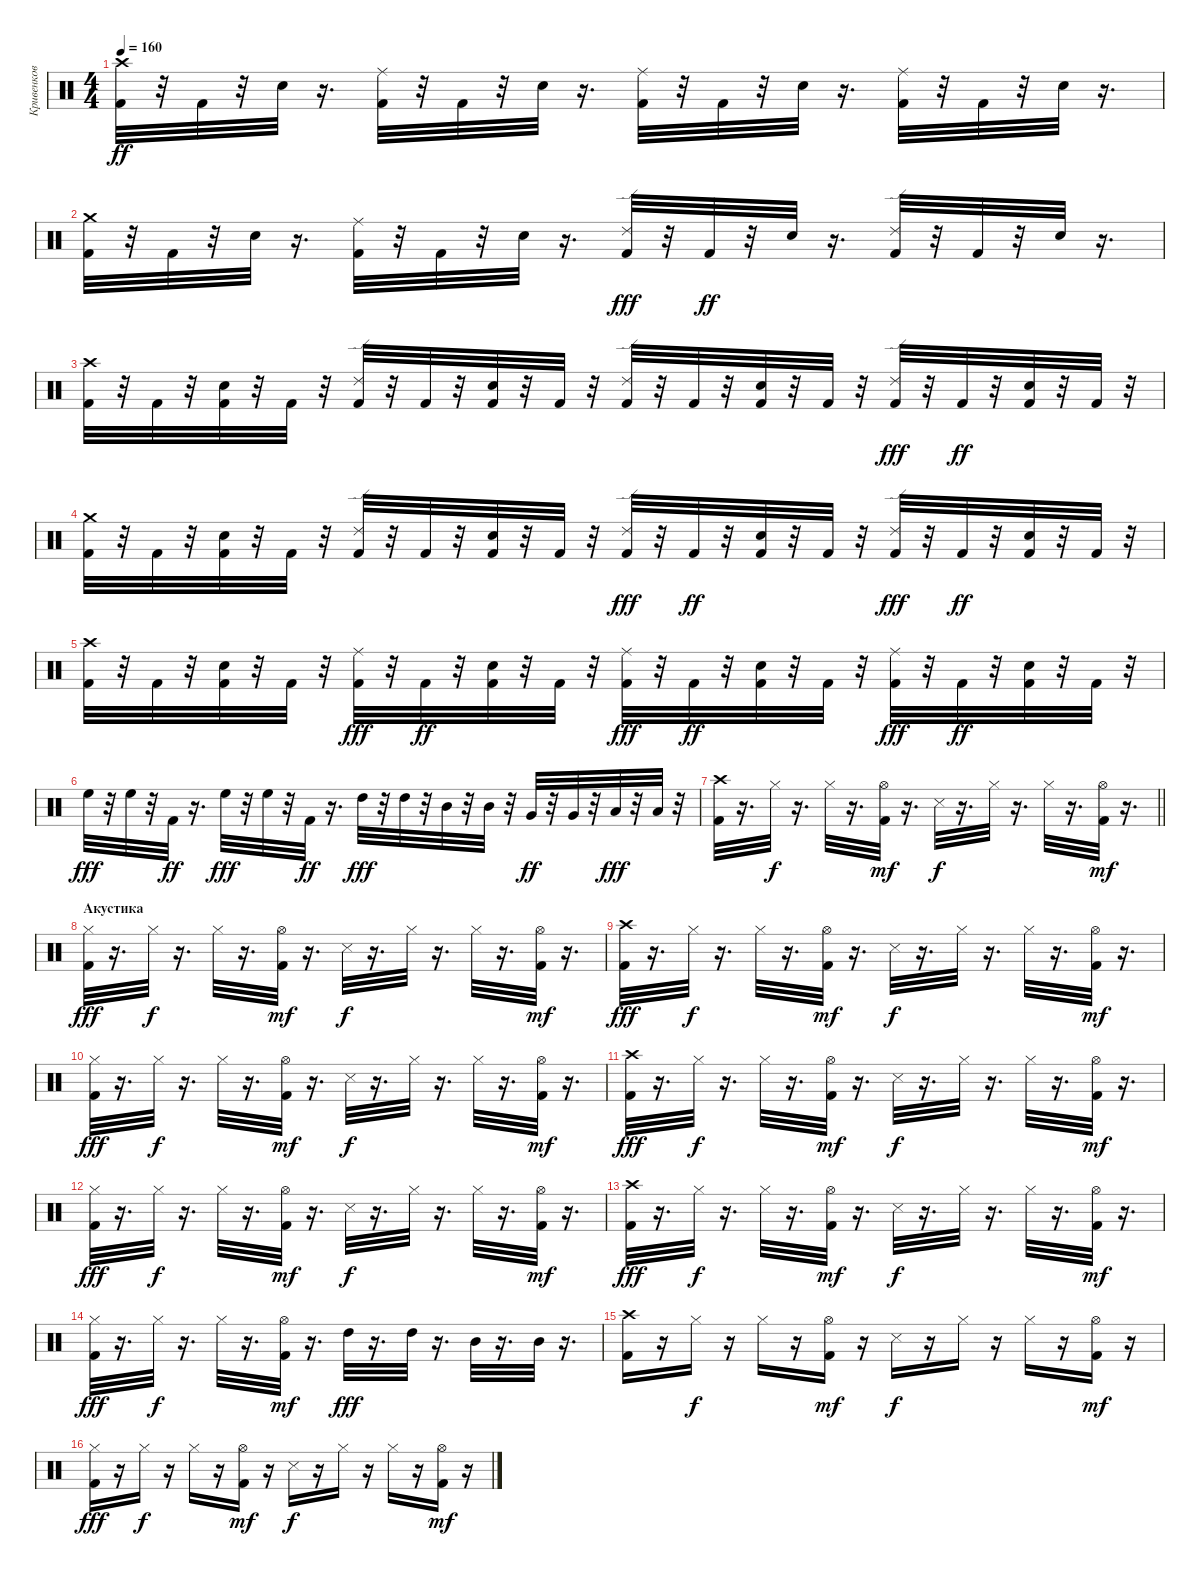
\track ("Кривенков" "Кривенков") {instrument percussion}
\staff {score}
\articulation defaults
\ts (4 4)
\tempo 160
\clef neutral
\ks c
("Crash high (hit)" "Kick (hit) 2").32{dy ff} r.32 "Kick (hit) 2".32 r.32 "Electric Snare (hit)".32 r.16{d} ("Ride (middle)" "Kick (hit) 2").32 r.32 "Kick (hit) 2".32 r.32 "Electric Snare (hit)".32 r.16{d} ("Ride (middle)" "Kick (hit) 2").32 r.32 "Kick (hit) 2".32 r.32 "Electric Snare (hit)".32 r.16{d} ("Ride (middle)" "Kick (hit) 2").32 r.32 "Kick (hit) 2".32 r.32 "Electric Snare (hit)".32 r.16{d} |
("Crash medium (hit)" "Kick (hit) 2").32 r.32 "Kick (hit) 2".32 r.32 "Electric Snare (hit)".32 r.16{d} ("Ride (middle)" "Kick (hit) 2").32 r.32 "Kick (hit) 2".32 r.32 "Electric Snare (hit)".32 r.16{d} ("Kick (hit) 2" "Ride (edge) 2").32{dy fff} r.32 "Kick (hit) 2".32{dy ff} r.32 "Electric Snare (hit)".32 r.16{d} ("Ride (edge) 2" "Kick (hit) 2").32 r.32 "Kick (hit) 2".32 r.32 "Electric Snare (hit)".32 r.16{d} |
("Crash high (hit)" "Kick (hit) 2").32 r.32 "Kick (hit) 2".32 r.32 ("Electric Snare (hit)" "Kick (hit) 2").32 r.32 "Kick (hit) 2".32 r.32 ("Ride (edge) 2" "Kick (hit) 2").32 r.32 "Kick (hit) 2".32 r.32 ("Kick (hit) 2" "Electric Snare (hit)").32 r.32 "Kick (hit) 2".32 r.32 ("Ride (edge) 2" "Kick (hit) 2").32 r.32 "Kick (hit) 2".32 r.32 ("Electric Snare (hit)" "Kick (hit) 2").32 r.32 "Kick (hit) 2".32 r.32 ("Kick (hit) 2" "Ride (edge) 2").32{dy fff} r.32 "Kick (hit) 2".32{dy ff} r.32 ("Electric Snare (hit)" "Kick (hit) 2").32 r.32 "Kick (hit) 2".32 r.32 |
("Crash medium (hit)" "Kick (hit) 2").32 r.32 "Kick (hit) 2".32 r.32 ("Electric Snare (hit)" "Kick (hit) 2").32 r.32 "Kick (hit) 2".32 r.32 ("Ride (edge) 2" "Kick (hit) 2").32 r.32 "Kick (hit) 2".32 r.32 ("Kick (hit) 2" "Electric Snare (hit)").32 r.32 "Kick (hit) 2".32 r.32 ("Kick (hit) 2" "Ride (edge) 2").32{dy fff} r.32 "Kick (hit) 2".32{dy ff} r.32 ("Kick (hit) 2" "Electric Snare (hit)").32 r.32 "Kick (hit) 2".32 r.32 ("Kick (hit) 2" "Ride (edge) 2").32{dy fff} r.32 "Kick (hit) 2".32{dy ff} r.32 ("Kick (hit) 2" "Electric Snare (hit)").32 r.32 "Kick (hit) 2".32 r.32 |
("Crash high (hit)" "Kick (hit) 2").32 r.32 "Kick (hit) 2".32 r.32 ("Kick (hit) 2" "Electric Snare (hit)").32 r.32 "Kick (hit) 2".32 r.32 ("Kick (hit) 2" "Ride (middle)").32{dy fff} r.32 "Kick (hit) 2".32{dy ff} r.32 ("Kick (hit) 2" "Electric Snare (hit)").32 r.32 "Kick (hit) 2".32 r.32 ("Kick (hit) 2" "Ride (middle)").32{dy fff} r.32 "Kick (hit) 2".32{dy ff} r.32 ("Electric Snare (hit)" "Kick (hit) 2").32 r.32 "Kick (hit) 2".32 r.32 ("Kick (hit) 2" "Ride (middle)").32{dy fff} r.32 "Kick (hit) 2".32{dy ff} r.32 ("Kick (hit) 2" "Electric Snare (hit)").32 r.32 "Kick (hit) 2".32 r.32 |
"High Floor Tom (hit)".32{dy fff} r.32 "High Floor Tom (hit)".32 r.32 "Kick (hit) 2".32{dy ff} r.16{d} "High Floor Tom (hit)".32{dy fff} r.32 "High Floor Tom (hit)".32 r.32 "Kick (hit) 2".32{dy ff} r.16{d} "High Tom (hit)".32{dy fff} r.32 "High Tom (hit)".32 r.32 "Mid Tom (hit)".32 r.32 "Mid Tom (hit)".32 r.32 "Very Low Tom (hit)".32{dy ff} r.32 "Very Low Tom (hit)".32 r.32 "Low Tom (hit)".32{dy fff} r.32 "Low Tom (hit)".32 r.32 |
\barLineRight lightlight
("Crash high (hit)" "Kick (hit) 2").32 r.16{d} "Hi-Hat (closed)".32{dy f} r.16{d} "Hi-Hat (closed)".32 r.16{d} ("Kick (hit) 2" "Hi-Hat (open)").32{dy mf} r.16{d} "Snare (side stick) 3".32{dy f} r.16{d} "Hi-Hat (closed)".32 r.16{d} "Hi-Hat (closed)".32 r.16{d} ("Hi-Hat (open)" "Kick (hit) 2").32{dy mf} r.16{d} |
\section ("" "Акустика")
("Kick (hit) 2" "Hi-Hat (closed)").32{dy fff} r.16{d} "Hi-Hat (closed)".32{dy f} r.16{d} "Hi-Hat (closed)".32 r.16{d} ("Hi-Hat (open)" "Kick (hit) 2").32{dy mf} r.16{d} "Snare (side stick) 3".32{dy f} r.16{d} "Hi-Hat (closed)".32 r.16{d} "Hi-Hat (closed)".32 r.16{d} ("Kick (hit) 2" "Hi-Hat (open)").32{dy mf} r.16{d} |
("Kick (hit) 2" "Crash high (hit)").32{dy fff} r.16{d} "Hi-Hat (closed)".32{dy f} r.16{d} "Hi-Hat (closed)".32 r.16{d} ("Kick (hit) 2" "Hi-Hat (open)").32{dy mf} r.16{d} "Snare (side stick) 3".32{dy f} r.16{d} "Hi-Hat (closed)".32 r.16{d} "Hi-Hat (closed)".32 r.16{d} ("Kick (hit) 2" "Hi-Hat (open)").32{dy mf} r.16{d} |
("Kick (hit) 2" "Hi-Hat (closed)").32{dy fff} r.16{d} "Hi-Hat (closed)".32{dy f} r.16{d} "Hi-Hat (closed)".32 r.16{d} ("Hi-Hat (open)" "Kick (hit) 2").32{dy mf} r.16{d} "Snare (side stick) 3".32{dy f} r.16{d} "Hi-Hat (closed)".32 r.16{d} "Hi-Hat (closed)".32 r.16{d} ("Hi-Hat (open)" "Kick (hit) 2").32{dy mf} r.16{d} |
("Kick (hit) 2" "Crash high (hit)").32{dy fff} r.16{d} "Hi-Hat (closed)".32{dy f} r.16{d} "Hi-Hat (closed)".32 r.16{d} ("Hi-Hat (open)" "Kick (hit) 2").32{dy mf} r.16{d} "Snare (side stick) 3".32{dy f} r.16{d} "Hi-Hat (closed)".32 r.16{d} "Hi-Hat (closed)".32 r.16{d} ("Hi-Hat (open)" "Kick (hit) 2").32{dy mf} r.16{d} |
("Hi-Hat (closed)" "Kick (hit) 2").32{dy fff} r.16{d} "Hi-Hat (closed)".32{dy f} r.16{d} "Hi-Hat (closed)".32 r.16{d} ("Hi-Hat (open)" "Kick (hit) 2").32{dy mf} r.16{d} "Snare (side stick) 3".32{dy f} r.16{d} "Hi-Hat (closed)".32 r.16{d} "Hi-Hat (closed)".32 r.16{d} ("Kick (hit) 2" "Hi-Hat (open)").32{dy mf} r.16{d} |
("Kick (hit) 2" "Crash high (hit)").32{dy fff} r.16{d} "Hi-Hat (closed)".32{dy f} r.16{d} "Hi-Hat (closed)".32 r.16{d} ("Hi-Hat (open)" "Kick (hit) 2").32{dy mf} r.16{d} "Snare (side stick) 3".32{dy f} r.16{d} "Hi-Hat (closed)".32 r.16{d} "Hi-Hat (closed)".32 r.16{d} ("Kick (hit) 2" "Hi-Hat (open)").32{dy mf} r.16{d} |
("Hi-Hat (closed)" "Kick (hit) 2").32{dy fff} r.16{d} "Hi-Hat (closed)".32{dy f} r.16{d} "Hi-Hat (closed)".32 r.16{d} ("Kick (hit) 2" "Hi-Hat (open)").32{dy mf} r.16{d} "High Tom (hit)".32{dy fff} r.16{d} "High Tom (hit)".32 r.16{d} "Mid Tom (hit)".32 r.16{d} "Mid Tom (hit)".32 r.16{d} |
("Kick (hit) 2" "Crash high (hit)").16 r.16 "Hi-Hat (closed)".16{dy f} r.16 "Hi-Hat (closed)".16 r.16 ("Hi-Hat (open)" "Kick (hit) 2").16{dy mf} r.16 "Snare (side stick) 3".16{dy f} r.16 "Hi-Hat (closed)".16 r.16 "Hi-Hat (closed)".16 r.16 ("Hi-Hat (open)" "Kick (hit) 2").16{dy mf} r.16 |
("Kick (hit) 2" "Hi-Hat (closed)").16{dy fff} r.16 "Hi-Hat (closed)".16{dy f} r.16 "Hi-Hat (closed)".16 r.16 ("Hi-Hat (open)" "Kick (hit) 2").16{dy mf} r.16 "Snare (side stick) 3".16{dy f} r.16 "Hi-Hat (closed)".16 r.16 "Hi-Hat (closed)".16 r.16 ("Hi-Hat (open)" "Kick (hit) 2").16{dy mf} r.16
